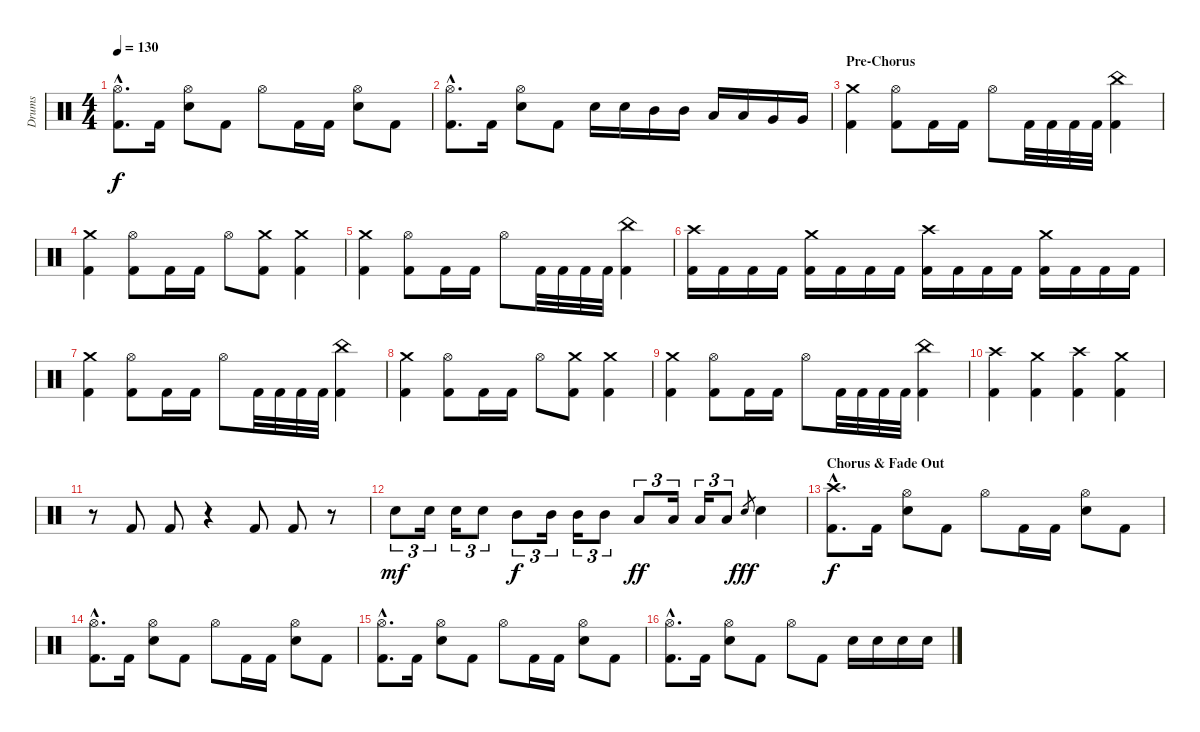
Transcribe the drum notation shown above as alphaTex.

\track ("Drums" "Drums") {instrument percussion}
\staff {score}
\articulation defaults
\ts (4 4)
\tempo 130
\clef neutral
\ks c
("Hi-Hat (open)"{hac} "Kick (hit) 2"{hac}).8{d dy f} "Kick (hit) 2".16 ("Hi-Hat (open)" "Snare (hit) 2").8 "Kick (hit) 2".8 "Hi-Hat (open)".8 "Kick (hit) 2".16 "Kick (hit) 2".16 ("Hi-Hat (open)" "Snare (hit) 2").8 "Kick (hit) 2".8 |
("Hi-Hat (open)"{hac} "Kick (hit) 2"{hac}).8{d} "Kick (hit) 2".16 ("Hi-Hat (open)" "Snare (hit) 2").8 "Kick (hit) 2".8 "Snare (hit) 2".16 "Snare (hit) 2".16 "Mid Tom (hit)".16 "Mid Tom (hit)".16 "Low Tom (hit)".16 "Low Tom (hit)".16 "Very Low Tom (hit)".16 "Very Low Tom (hit)".16 |
\section ("" "Pre-Chorus")
("Crash medium (hit)" "Kick (hit) 2").4 ("Hi-Hat (open)" "Kick (hit) 2").8 "Kick (hit) 2".16 "Kick (hit) 2".16 "Hi-Hat (open)".8 "Kick (hit) 2".32 "Kick (hit) 2".32 "Kick (hit) 2".32 "Kick (hit) 2".32 ("China (hit)" "Kick (hit) 2").4 |
("Crash medium (hit)" "Kick (hit) 2").4 ("Hi-Hat (open)" "Kick (hit) 2").8 "Kick (hit) 2".16 "Kick (hit) 2".16 "Hi-Hat (open)".8 ("Crash medium (hit)" "Kick (hit) 2").8 ("Crash medium (hit)" "Kick (hit) 2").4 |
("Crash medium (hit)" "Kick (hit) 2").4 ("Hi-Hat (open)" "Kick (hit) 2").8 "Kick (hit) 2".16 "Kick (hit) 2".16 "Hi-Hat (open)".8 "Kick (hit) 2".32 "Kick (hit) 2".32 "Kick (hit) 2".32 "Kick (hit) 2".32 ("China (hit)" "Kick (hit) 2").4 |
("Crash high (hit)" "Kick (hit) 2").16 "Kick (hit) 2".16 "Kick (hit) 2".16 "Kick (hit) 2".16 ("Crash medium (hit)" "Kick (hit) 2").16 "Kick (hit) 2".16 "Kick (hit) 2".16 "Kick (hit) 2".16 ("Crash high (hit)" "Kick (hit) 2").16 "Kick (hit) 2".16 "Kick (hit) 2".16 "Kick (hit) 2".16 ("Crash medium (hit)" "Kick (hit) 2").16 "Kick (hit) 2".16 "Kick (hit) 2".16 "Kick (hit) 2".16 |
("Crash medium (hit)" "Kick (hit) 2").4 ("Hi-Hat (open)" "Kick (hit) 2").8 "Kick (hit) 2".16 "Kick (hit) 2".16 "Hi-Hat (open)".8 "Kick (hit) 2".32 "Kick (hit) 2".32 "Kick (hit) 2".32 "Kick (hit) 2".32 ("China (hit)" "Kick (hit) 2").4 |
("Crash medium (hit)" "Kick (hit) 2").4 ("Hi-Hat (open)" "Kick (hit) 2").8 "Kick (hit) 2".16 "Kick (hit) 2".16 "Hi-Hat (open)".8 ("Crash medium (hit)" "Kick (hit) 2").8 ("Crash medium (hit)" "Kick (hit) 2").4 |
("Crash medium (hit)" "Kick (hit) 2").4 ("Hi-Hat (open)" "Kick (hit) 2").8 "Kick (hit) 2".16 "Kick (hit) 2".16 "Hi-Hat (open)".8 "Kick (hit) 2".32 "Kick (hit) 2".32 "Kick (hit) 2".32 "Kick (hit) 2".32 ("China (hit)" "Kick (hit) 2").4 |
("Crash high (hit)" "Kick (hit) 2").4 ("Crash medium (hit)" "Kick (hit) 2").4 ("Crash high (hit)" "Kick (hit) 2").4 ("Crash medium (hit)" "Kick (hit) 2").4 |
r.8 "Kick (hit) 2".8 "Kick (hit) 2".8 r.4 "Kick (hit) 2".8 "Kick (hit) 2".8 r.8 |
"Snare (hit) 2".8{tu (3 2) dy mf} "Snare (hit) 2".16{tu (3 2)} "Snare (hit) 2".16{tu (3 2)} "Snare (hit) 2".8{tu (3 2)} "Mid Tom (hit)".8{tu (3 2) dy f} "Mid Tom (hit)".16{tu (3 2)} "Mid Tom (hit)".16{tu (3 2)} "Mid Tom (hit)".8{tu (3 2)} "Low Tom (hit)".8{tu (3 2) dy ff} "Low Tom (hit)".16{tu (3 2)} "Low Tom (hit)".16{tu (3 2)} "Low Tom (hit)".8{tu (3 2)} "Snare (hit) 2".8{gr dy fff} "Snare (hit) 2".4 |
\section ("" "Chorus & Fade Out")
("Crash high (hit)"{hac} "Kick (hit) 2"{hac}).8{d dy f} "Kick (hit) 2".16 ("Hi-Hat (open)" "Snare (hit) 2").8 "Kick (hit) 2".8 "Hi-Hat (open)".8 "Kick (hit) 2".16 "Kick (hit) 2".16 ("Hi-Hat (open)" "Snare (hit) 2").8 "Kick (hit) 2".8 |
("Hi-Hat (open)"{hac} "Kick (hit) 2"{hac}).8{d} "Kick (hit) 2".16 ("Hi-Hat (open)" "Snare (hit) 2").8 "Kick (hit) 2".8 "Hi-Hat (open)".8 "Kick (hit) 2".16 "Kick (hit) 2".16 ("Hi-Hat (open)" "Snare (hit) 2").8 "Kick (hit) 2".8 |
("Hi-Hat (open)"{hac} "Kick (hit) 2"{hac}).8{d} "Kick (hit) 2".16 ("Hi-Hat (open)" "Snare (hit) 2").8 "Kick (hit) 2".8 "Hi-Hat (open)".8 "Kick (hit) 2".16 "Kick (hit) 2".16 ("Hi-Hat (open)" "Snare (hit) 2").8 "Kick (hit) 2".8 |
("Hi-Hat (open)"{hac} "Kick (hit) 2"{hac}).8{d} "Kick (hit) 2".16 ("Hi-Hat (open)" "Snare (hit) 2").8 "Kick (hit) 2".8 "Hi-Hat (open)".8 "Kick (hit) 2".8 "Snare (hit) 2".16 "Snare (hit) 2".16 "Snare (hit) 2".16 "Snare (hit) 2".16
